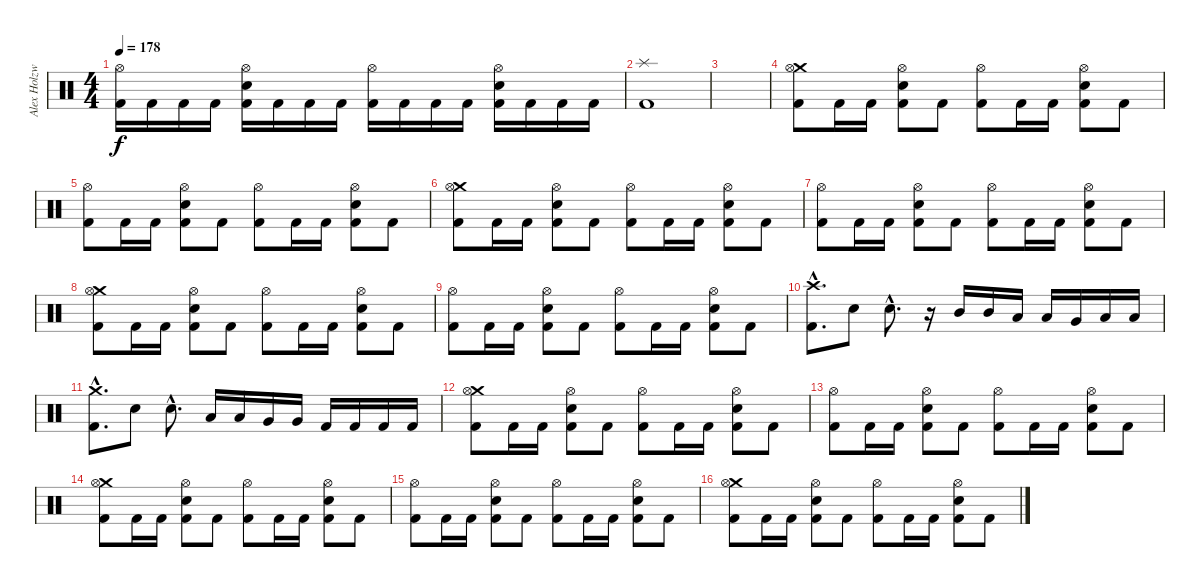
\track ("Alex Holzwarth" "Alex Holzw") {instrument percussion}
\staff {score}
\articulation defaults
\ts (4 4)
\tempo 178
\clef neutral
\ks c
("Hi-Hat (open)" "Kick (hit) 2").16{dy f} "Kick (hit) 2".16 "Kick (hit) 2".16 "Kick (hit) 2".16 ("Hi-Hat (open)" "Snare (hit) 2" "Kick (hit) 2").16 "Kick (hit) 2".16 "Kick (hit) 2".16 "Kick (hit) 2".16 ("Hi-Hat (open)" "Kick (hit) 2").16 "Kick (hit) 2".16 "Kick (hit) 2".16 "Kick (hit) 2".16 ("Hi-Hat (open)" "Snare (hit) 2" "Kick (hit) 2").16 "Kick (hit) 2".16 "Kick (hit) 2".16 "Kick (hit) 2".16 |
("Splash (hit)" "Kick (hit) 2").1 |
|
("Crash medium (hit)" "Hi-Hat (open)" "Kick (hit) 2").8 "Kick (hit) 2".16 "Kick (hit) 2".16 ("Hi-Hat (open)" "Snare (hit) 2" "Kick (hit) 2").8 "Kick (hit) 2".8 ("Hi-Hat (open)" "Kick (hit) 2").8 "Kick (hit) 2".16 "Kick (hit) 2".16 ("Hi-Hat (open)" "Snare (hit) 2" "Kick (hit) 2").8 "Kick (hit) 2".8 |
("Hi-Hat (open)" "Kick (hit) 2").8 "Kick (hit) 2".16 "Kick (hit) 2".16 ("Hi-Hat (open)" "Snare (hit) 2" "Kick (hit) 2").8 "Kick (hit) 2".8 ("Hi-Hat (open)" "Kick (hit) 2").8 "Kick (hit) 2".16 "Kick (hit) 2".16 ("Hi-Hat (open)" "Snare (hit) 2" "Kick (hit) 2").8 "Kick (hit) 2".8 |
("Crash medium (hit)" "Hi-Hat (open)" "Kick (hit) 2").8 "Kick (hit) 2".16 "Kick (hit) 2".16 ("Hi-Hat (open)" "Snare (hit) 2" "Kick (hit) 2").8 "Kick (hit) 2".8 ("Hi-Hat (open)" "Kick (hit) 2").8 "Kick (hit) 2".16 "Kick (hit) 2".16 ("Hi-Hat (open)" "Snare (hit) 2" "Kick (hit) 2").8 "Kick (hit) 2".8 |
("Hi-Hat (open)" "Kick (hit) 2").8 "Kick (hit) 2".16 "Kick (hit) 2".16 ("Hi-Hat (open)" "Snare (hit) 2" "Kick (hit) 2").8 "Kick (hit) 2".8 ("Hi-Hat (open)" "Kick (hit) 2").8 "Kick (hit) 2".16 "Kick (hit) 2".16 ("Hi-Hat (open)" "Snare (hit) 2" "Kick (hit) 2").8 "Kick (hit) 2".8 |
("Crash medium (hit)" "Hi-Hat (open)" "Kick (hit) 2").8 "Kick (hit) 2".16 "Kick (hit) 2".16 ("Hi-Hat (open)" "Snare (hit) 2" "Kick (hit) 2").8 "Kick (hit) 2".8 ("Hi-Hat (open)" "Kick (hit) 2").8 "Kick (hit) 2".16 "Kick (hit) 2".16 ("Hi-Hat (open)" "Snare (hit) 2" "Kick (hit) 2").8 "Kick (hit) 2".8 |
("Hi-Hat (open)" "Kick (hit) 2").8 "Kick (hit) 2".16 "Kick (hit) 2".16 ("Hi-Hat (open)" "Snare (hit) 2" "Kick (hit) 2").8 "Kick (hit) 2".8 ("Hi-Hat (open)" "Kick (hit) 2").8 "Kick (hit) 2".16 "Kick (hit) 2".16 ("Hi-Hat (open)" "Snare (hit) 2" "Kick (hit) 2").8 "Kick (hit) 2".8 |
("Crash high (hit)"{hac} "Kick (hit) 2"{hac}).8{d} "Snare (hit) 2".8 "Snare (hit) 2"{hac}.8{d} r.16 "Mid Tom (hit)".16 "Mid Tom (hit)".16 "Low Tom (hit)".16 "Low Tom (hit)".16 "Very Low Tom (hit)".16 "Low Floor Tom (hit)".16 "Low Floor Tom (hit)".16 |
("Crash medium (hit)"{hac} "Kick (hit) 2"{hac}).8{d} "Snare (hit) 2".8 "Snare (hit) 2"{hac}.8{d} "Low Tom (hit)".16 "Low Tom (hit)".16 "Very Low Tom (hit)".16 "Very Low Tom (hit)".16 "Kick (hit) 2".16 "Kick (hit) 2".16 "Kick (hit) 2".16 "Kick (hit) 2".16 |
("Crash medium (hit)" "Hi-Hat (open)" "Kick (hit) 2").8 "Kick (hit) 2".16 "Kick (hit) 2".16 ("Hi-Hat (open)" "Snare (hit) 2" "Kick (hit) 2").8 "Kick (hit) 2".8 ("Hi-Hat (open)" "Kick (hit) 2").8 "Kick (hit) 2".16 "Kick (hit) 2".16 ("Hi-Hat (open)" "Snare (hit) 2" "Kick (hit) 2").8 "Kick (hit) 2".8 |
("Hi-Hat (open)" "Kick (hit) 2").8 "Kick (hit) 2".16 "Kick (hit) 2".16 ("Hi-Hat (open)" "Snare (hit) 2" "Kick (hit) 2").8 "Kick (hit) 2".8 ("Hi-Hat (open)" "Kick (hit) 2").8 "Kick (hit) 2".16 "Kick (hit) 2".16 ("Hi-Hat (open)" "Snare (hit) 2" "Kick (hit) 2").8 "Kick (hit) 2".8 |
("Crash medium (hit)" "Hi-Hat (open)" "Kick (hit) 2").8 "Kick (hit) 2".16 "Kick (hit) 2".16 ("Hi-Hat (open)" "Snare (hit) 2" "Kick (hit) 2").8 "Kick (hit) 2".8 ("Hi-Hat (open)" "Kick (hit) 2").8 "Kick (hit) 2".16 "Kick (hit) 2".16 ("Hi-Hat (open)" "Snare (hit) 2" "Kick (hit) 2").8 "Kick (hit) 2".8 |
("Hi-Hat (open)" "Kick (hit) 2").8 "Kick (hit) 2".16 "Kick (hit) 2".16 ("Hi-Hat (open)" "Snare (hit) 2" "Kick (hit) 2").8 "Kick (hit) 2".8 ("Hi-Hat (open)" "Kick (hit) 2").8 "Kick (hit) 2".16 "Kick (hit) 2".16 ("Hi-Hat (open)" "Snare (hit) 2" "Kick (hit) 2").8 "Kick (hit) 2".8 |
("Crash medium (hit)" "Hi-Hat (open)" "Kick (hit) 2").8 "Kick (hit) 2".16 "Kick (hit) 2".16 ("Hi-Hat (open)" "Snare (hit) 2" "Kick (hit) 2").8 "Kick (hit) 2".8 ("Hi-Hat (open)" "Kick (hit) 2").8 "Kick (hit) 2".16 "Kick (hit) 2".16 ("Hi-Hat (open)" "Snare (hit) 2" "Kick (hit) 2").8 "Kick (hit) 2".8
